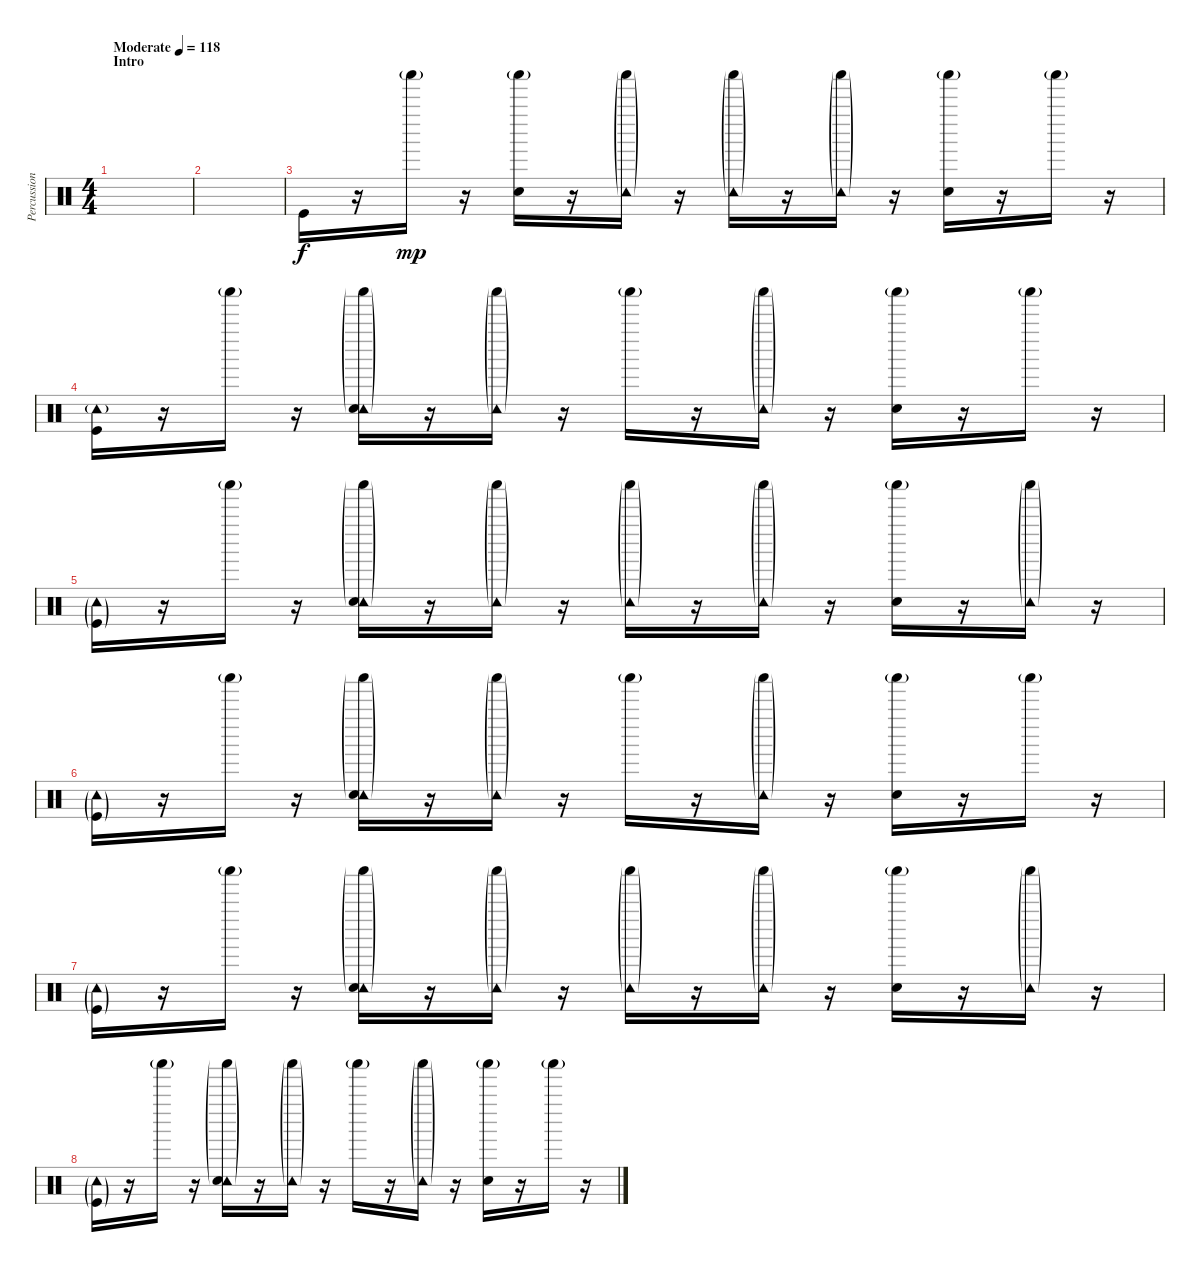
\track ("Percussion" "Percussion") {instrument percussion}
\staff {score}
\articulation defaults
\ts (4 4)
\section ("" "Intro")
\tempo (118 "Moderate")
\clef neutral
\ks c
|
|
"Kick (hit)".16 r.16 "Shaker (hit)"{g}.16{dy mp} r.16 ("Shaker (hit)"{g} "Hand Clap (hit)").16 r.16 ("Shaker (hit)"{g} "Tambourine (hit)"{g}).16 r.16 ("Shaker (hit)"{g} "Tambourine (hit)"{g}).16 r.16 ("Shaker (hit)"{g} "Tambourine (hit)"{g}).16 r.16 ("Shaker (hit)"{g} "Hand Clap (hit)").16 r.16 "Shaker (hit)"{g}.16 r.16 |
("Tambourine (hit)"{g} "Kick (hit)").16 r.16 "Shaker (hit)"{g}.16 r.16 ("Shaker (hit)"{g} "Tambourine (hit)"{g} "Hand Clap (hit)").16 r.16 ("Shaker (hit)"{g} "Tambourine (hit)"{g}).16 r.16 "Shaker (hit)"{g}.16 r.16 ("Shaker (hit)"{g} "Tambourine (hit)"{g}).16 r.16 ("Shaker (hit)"{g} "Hand Clap (hit)").16 r.16 "Shaker (hit)"{g}.16 r.16 |
("Tambourine (hit)"{g} "Kick (hit)"{g}).16 r.16 "Shaker (hit)"{g}.16 r.16 ("Shaker (hit)"{g} "Tambourine (hit)"{g} "Hand Clap (hit)").16 r.16 ("Shaker (hit)"{g} "Tambourine (hit)"{g}).16 r.16 ("Shaker (hit)"{g} "Tambourine (hit)"{g}).16 r.16 ("Shaker (hit)"{g} "Tambourine (hit)"{g}).16 r.16 ("Shaker (hit)"{g} "Hand Clap (hit)").16 r.16 ("Shaker (hit)"{g} "Tambourine (hit)"{g}).16 r.16 |
("Tambourine (hit)"{g} "Kick (hit)"{g}).16 r.16 "Shaker (hit)"{g}.16 r.16 ("Shaker (hit)"{g} "Tambourine (hit)"{g} "Hand Clap (hit)").16 r.16 ("Shaker (hit)"{g} "Tambourine (hit)"{g}).16 r.16 "Shaker (hit)"{g}.16 r.16 ("Shaker (hit)"{g} "Tambourine (hit)"{g}).16 r.16 ("Shaker (hit)"{g} "Hand Clap (hit)").16 r.16 "Shaker (hit)"{g}.16 r.16 |
("Tambourine (hit)"{g} "Kick (hit)"{g}).16 r.16 "Shaker (hit)"{g}.16 r.16 ("Shaker (hit)"{g} "Tambourine (hit)"{g} "Hand Clap (hit)").16 r.16 ("Shaker (hit)"{g} "Tambourine (hit)"{g}).16 r.16 ("Shaker (hit)"{g} "Tambourine (hit)"{g}).16 r.16 ("Shaker (hit)"{g} "Tambourine (hit)"{g}).16 r.16 ("Shaker (hit)"{g} "Hand Clap (hit)").16 r.16 ("Shaker (hit)"{g} "Tambourine (hit)"{g}).16 r.16 |
("Tambourine (hit)"{g} "Kick (hit)"{g}).16 r.16 "Shaker (hit)"{g}.16 r.16 ("Shaker (hit)"{g} "Tambourine (hit)"{g} "Hand Clap (hit)").16 r.16 ("Shaker (hit)"{g} "Tambourine (hit)"{g}).16 r.16 "Shaker (hit)"{g}.16 r.16 ("Shaker (hit)"{g} "Tambourine (hit)"{g}).16 r.16 ("Shaker (hit)"{g} "Hand Clap (hit)").16 r.16 "Shaker (hit)"{g}.16 r.16
